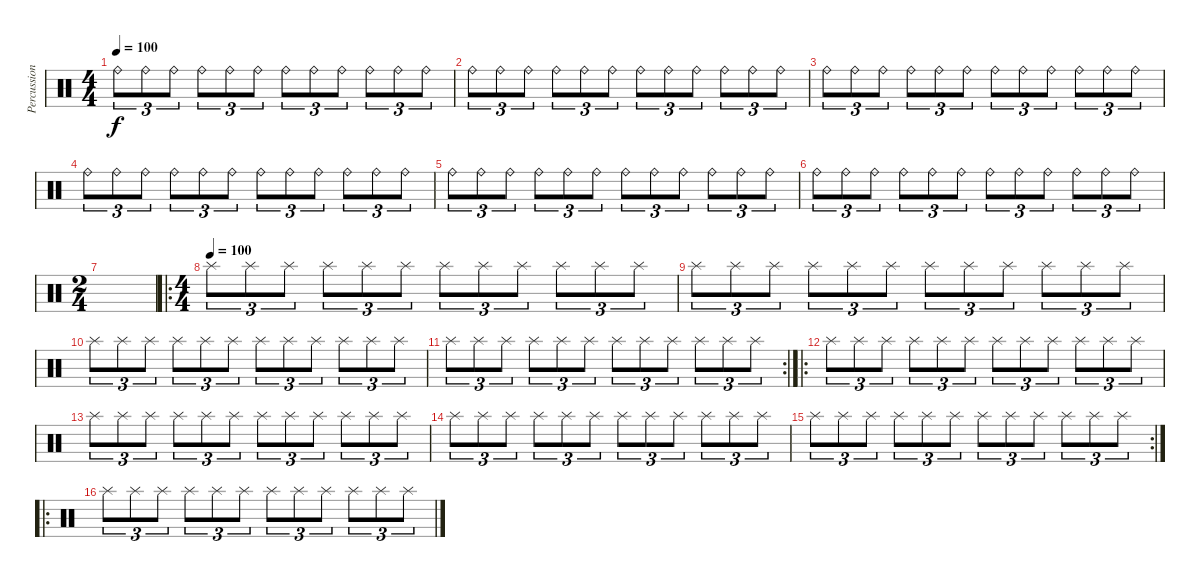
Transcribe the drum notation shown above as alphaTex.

\track ("Percussion" "Percussion") {instrument percussion}
\staff {score}
\articulation defaults
\ts (4 4)
\tempo 100
\clef neutral
\ks c "Ride (bell)".8{tu (3 2) dy f} "Ride (bell)".8{tu (3 2)} "Ride (bell)".8{tu (3 2)} "Ride (bell)".8{tu (3 2)} "Ride (bell)".8{tu (3 2)} "Ride (bell)".8{tu (3 2)} "Ride (bell)".8{tu (3 2)} "Ride (bell)".8{tu (3 2)} "Ride (bell)".8{tu (3 2)} "Ride (bell)".8{tu (3 2)} "Ride (bell)".8{tu (3 2)} "Ride (bell)".8{tu (3 2)}
|
"Ride (bell)".8{tu (3 2)} "Ride (bell)".8{tu (3 2)} "Ride (bell)".8{tu (3 2)} "Ride (bell)".8{tu (3 2)} "Ride (bell)".8{tu (3 2)} "Ride (bell)".8{tu (3 2)} "Ride (bell)".8{tu (3 2)} "Ride (bell)".8{tu (3 2)} "Ride (bell)".8{tu (3 2)} "Ride (bell)".8{tu (3 2)} "Ride (bell)".8{tu (3 2)} "Ride (bell)".8{tu (3 2)} |
"Ride (bell)".8{tu (3 2)} "Ride (bell)".8{tu (3 2)} "Ride (bell)".8{tu (3 2)} "Ride (bell)".8{tu (3 2)} "Ride (bell)".8{tu (3 2)} "Ride (bell)".8{tu (3 2)} "Ride (bell)".8{tu (3 2)} "Ride (bell)".8{tu (3 2)} "Ride (bell)".8{tu (3 2)} "Ride (bell)".8{tu (3 2)} "Ride (bell)".8{tu (3 2)} "Ride (bell)".8{tu (3 2)} |
"Ride (bell)".8{tu (3 2)} "Ride (bell)".8{tu (3 2)} "Ride (bell)".8{tu (3 2)} "Ride (bell)".8{tu (3 2)} "Ride (bell)".8{tu (3 2)} "Ride (bell)".8{tu (3 2)} "Ride (bell)".8{tu (3 2)} "Ride (bell)".8{tu (3 2)} "Ride (bell)".8{tu (3 2)} "Ride (bell)".8{tu (3 2)} "Ride (bell)".8{tu (3 2)} "Ride (bell)".8{tu (3 2)} |
"Ride (bell)".8{tu (3 2)} "Ride (bell)".8{tu (3 2)} "Ride (bell)".8{tu (3 2)} "Ride (bell)".8{tu (3 2)} "Ride (bell)".8{tu (3 2)} "Ride (bell)".8{tu (3 2)} "Ride (bell)".8{tu (3 2)} "Ride (bell)".8{tu (3 2)} "Ride (bell)".8{tu (3 2)} "Ride (bell)".8{tu (3 2)} "Ride (bell)".8{tu (3 2)} "Ride (bell)".8{tu (3 2)} |
"Ride (bell)".8{tu (3 2)} "Ride (bell)".8{tu (3 2)} "Ride (bell)".8{tu (3 2)} "Ride (bell)".8{tu (3 2)} "Ride (bell)".8{tu (3 2)} "Ride (bell)".8{tu (3 2)} "Ride (bell)".8{tu (3 2)} "Ride (bell)".8{tu (3 2)} "Ride (bell)".8{tu (3 2)} "Ride (bell)".8{tu (3 2)} "Ride (bell)".8{tu (3 2)} "Ride (bell)".8{tu (3 2)} |
\ts (2 4)
|
\ro
\ts (4 4)
\tempo (100)
"Splash (hit)".8{tu (3 2)} "Splash (hit)".8{tu (3 2)} "Splash (hit)".8{tu (3 2)} "Splash (hit)".8{tu (3 2)} "Splash (hit)".8{tu (3 2)} "Splash (hit)".8{tu (3 2)} "Splash (hit)".8{tu (3 2)} "Splash (hit)".8{tu (3 2)} "Splash (hit)".8{tu (3 2)} "Splash (hit)".8{tu (3 2)} "Splash (hit)".8{tu (3 2)} "Splash (hit)".8{tu (3 2)} |
"Splash (hit)".8{tu (3 2)} "Splash (hit)".8{tu (3 2)} "Splash (hit)".8{tu (3 2)} "Splash (hit)".8{tu (3 2)} "Splash (hit)".8{tu (3 2)} "Splash (hit)".8{tu (3 2)} "Splash (hit)".8{tu (3 2)} "Splash (hit)".8{tu (3 2)} "Splash (hit)".8{tu (3 2)} "Splash (hit)".8{tu (3 2)} "Splash (hit)".8{tu (3 2)} "Splash (hit)".8{tu (3 2)} |
"Splash (hit)".8{tu (3 2)} "Splash (hit)".8{tu (3 2)} "Splash (hit)".8{tu (3 2)} "Splash (hit)".8{tu (3 2)} "Splash (hit)".8{tu (3 2)} "Splash (hit)".8{tu (3 2)} "Splash (hit)".8{tu (3 2)} "Splash (hit)".8{tu (3 2)} "Splash (hit)".8{tu (3 2)} "Splash (hit)".8{tu (3 2)} "Splash (hit)".8{tu (3 2)} "Splash (hit)".8{tu (3 2)} |
\rc 2 "Splash (hit)".8{tu (3 2)} "Splash (hit)".8{tu (3 2)} "Splash (hit)".8{tu (3 2)} "Splash (hit)".8{tu (3 2)} "Splash (hit)".8{tu (3 2)} "Splash (hit)".8{tu (3 2)} "Splash (hit)".8{tu (3 2)} "Splash (hit)".8{tu (3 2)} "Splash (hit)".8{tu (3 2)} "Splash (hit)".8{tu (3 2)} "Splash (hit)".8{tu (3 2)} "Splash (hit)".8{tu (3 2)}
|
\ro "Splash (hit)".8{tu (3 2)} "Splash (hit)".8{tu (3 2)} "Splash (hit)".8{tu (3 2)} "Splash (hit)".8{tu (3 2)} "Splash (hit)".8{tu (3 2)} "Splash (hit)".8{tu (3 2)} "Splash (hit)".8{tu (3 2)} "Splash (hit)".8{tu (3 2)} "Splash (hit)".8{tu (3 2)} "Splash (hit)".8{tu (3 2)} "Splash (hit)".8{tu (3 2)} "Splash (hit)".8{tu (3 2)}
|
"Splash (hit)".8{tu (3 2)} "Splash (hit)".8{tu (3 2)} "Splash (hit)".8{tu (3 2)} "Splash (hit)".8{tu (3 2)} "Splash (hit)".8{tu (3 2)} "Splash (hit)".8{tu (3 2)} "Splash (hit)".8{tu (3 2)} "Splash (hit)".8{tu (3 2)} "Splash (hit)".8{tu (3 2)} "Splash (hit)".8{tu (3 2)} "Splash (hit)".8{tu (3 2)} "Splash (hit)".8{tu (3 2)} |
"Splash (hit)".8{tu (3 2)} "Splash (hit)".8{tu (3 2)} "Splash (hit)".8{tu (3 2)} "Splash (hit)".8{tu (3 2)} "Splash (hit)".8{tu (3 2)} "Splash (hit)".8{tu (3 2)} "Splash (hit)".8{tu (3 2)} "Splash (hit)".8{tu (3 2)} "Splash (hit)".8{tu (3 2)} "Splash (hit)".8{tu (3 2)} "Splash (hit)".8{tu (3 2)} "Splash (hit)".8{tu (3 2)} |
\rc 2 "Splash (hit)".8{tu (3 2)} "Splash (hit)".8{tu (3 2)} "Splash (hit)".8{tu (3 2)} "Splash (hit)".8{tu (3 2)} "Splash (hit)".8{tu (3 2)} "Splash (hit)".8{tu (3 2)} "Splash (hit)".8{tu (3 2)} "Splash (hit)".8{tu (3 2)} "Splash (hit)".8{tu (3 2)} "Splash (hit)".8{tu (3 2)} "Splash (hit)".8{tu (3 2)} "Splash (hit)".8{tu (3 2)}
|
\ro "Splash (hit)".8{tu (3 2)} "Splash (hit)".8{tu (3 2)} "Splash (hit)".8{tu (3 2)} "Splash (hit)".8{tu (3 2)} "Splash (hit)".8{tu (3 2)} "Splash (hit)".8{tu (3 2)} "Splash (hit)".8{tu (3 2)} "Splash (hit)".8{tu (3 2)} "Splash (hit)".8{tu (3 2)} "Splash (hit)".8{tu (3 2)} "Splash (hit)".8{tu (3 2)} "Splash (hit)".8{tu (3 2)}
